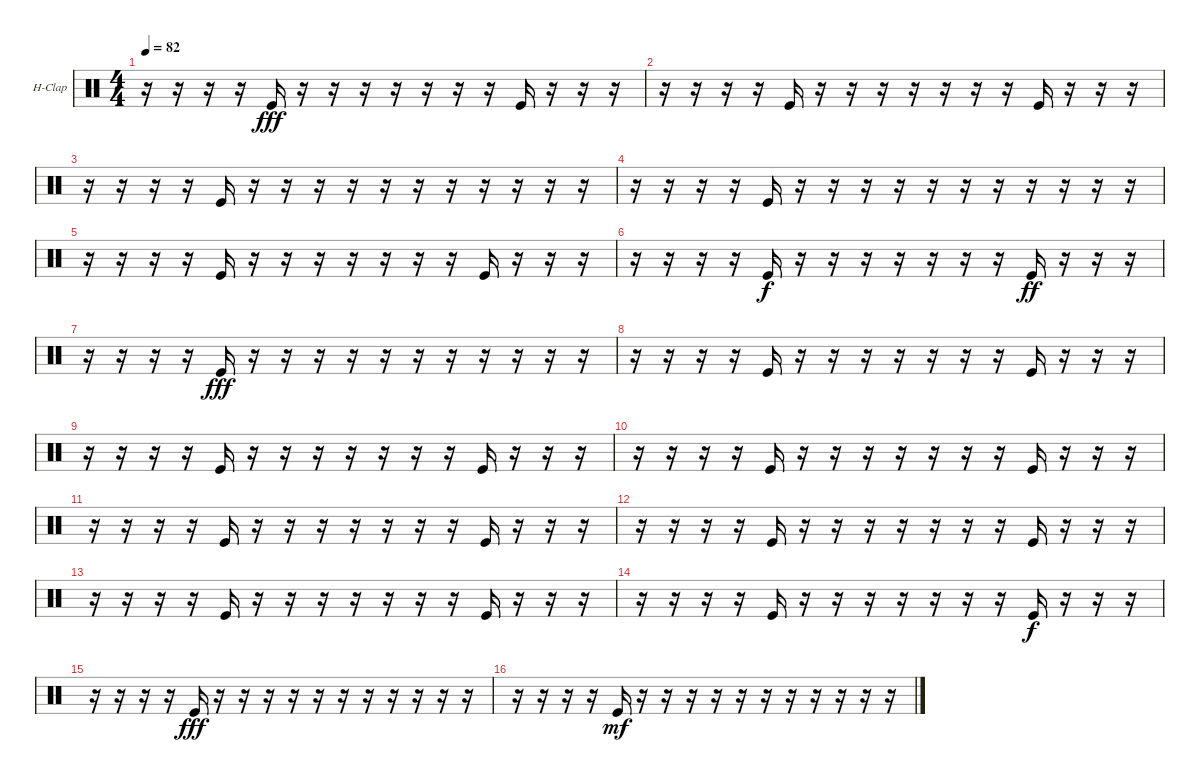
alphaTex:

\bracketExtendMode groupsimilarinstruments
\firstSystemTrackNameOrientation horizontal
\otherSystemsTrackNameOrientation horizontal
\track ("Hand Clap" "H-Clap") {instrument percussion}
\staff {score}
\articulation defaults
\ts (4 4)
\tempo 82
\clef neutral
\ks c
r.16{dy mf} r.16 r.16 r.16 "Kick (hit)".16{dy fff} r.16 r.16 r.16 r.16 r.16 r.16 r.16 "Kick (hit)".16 r.16 r.16 r.16 |
r.16 r.16 r.16 r.16 "Kick (hit)".16 r.16 r.16 r.16 r.16 r.16 r.16 r.16 "Kick (hit)".16 r.16 r.16 r.16 |
r.16 r.16 r.16 r.16 "Kick (hit)".16 r.16 r.16 r.16 r.16 r.16 r.16 r.16 r.16 r.16 r.16 r.16 |
r.16 r.16 r.16 r.16 "Kick (hit)".16 r.16 r.16 r.16 r.16 r.16 r.16 r.16 r.16 r.16 r.16 r.16 |
r.16 r.16 r.16 r.16 "Kick (hit)".16 r.16 r.16 r.16 r.16 r.16 r.16 r.16 "Kick (hit)".16 r.16 r.16 r.16 |
r.16 r.16 r.16 r.16 "Kick (hit)".16{dy f} r.16 r.16 r.16 r.16 r.16 r.16 r.16 "Kick (hit)".16{dy ff} r.16 r.16 r.16 |
r.16 r.16 r.16 r.16 "Kick (hit)".16{dy fff} r.16 r.16 r.16 r.16 r.16 r.16 r.16 r.16 r.16 r.16 r.16 |
r.16 r.16 r.16 r.16 "Kick (hit)".16 r.16 r.16 r.16 r.16 r.16 r.16 r.16 "Kick (hit)".16 r.16 r.16 r.16 |
r.16 r.16 r.16 r.16 "Kick (hit)".16 r.16 r.16 r.16 r.16 r.16 r.16 r.16 "Kick (hit)".16 r.16 r.16 r.16 |
r.16 r.16 r.16 r.16 "Kick (hit)".16 r.16 r.16 r.16 r.16 r.16 r.16 r.16 "Kick (hit)".16 r.16 r.16 r.16 |
r.16 r.16 r.16 r.16 "Kick (hit)".16 r.16 r.16 r.16 r.16 r.16 r.16 r.16 "Kick (hit)".16 r.16 r.16 r.16 |
r.16 r.16 r.16 r.16 "Kick (hit)".16 r.16 r.16 r.16 r.16 r.16 r.16 r.16 "Kick (hit)".16 r.16 r.16 r.16 |
r.16 r.16 r.16 r.16 "Kick (hit)".16 r.16 r.16 r.16 r.16 r.16 r.16 r.16 "Kick (hit)".16 r.16 r.16 r.16 |
r.16 r.16 r.16 r.16 "Kick (hit)".16 r.16 r.16 r.16 r.16 r.16 r.16 r.16 "Kick (hit)".16{dy f} r.16 r.16 r.16 |
r.16 r.16 r.16 r.16 "Kick (hit)".16{dy fff} r.16 r.16 r.16 r.16 r.16 r.16 r.16 r.16 r.16 r.16 r.16 |
r.16 r.16 r.16 r.16 "Kick (hit)".16{dy mf} r.16 r.16 r.16 r.16 r.16 r.16 r.16 r.16 r.16 r.16 r.16
